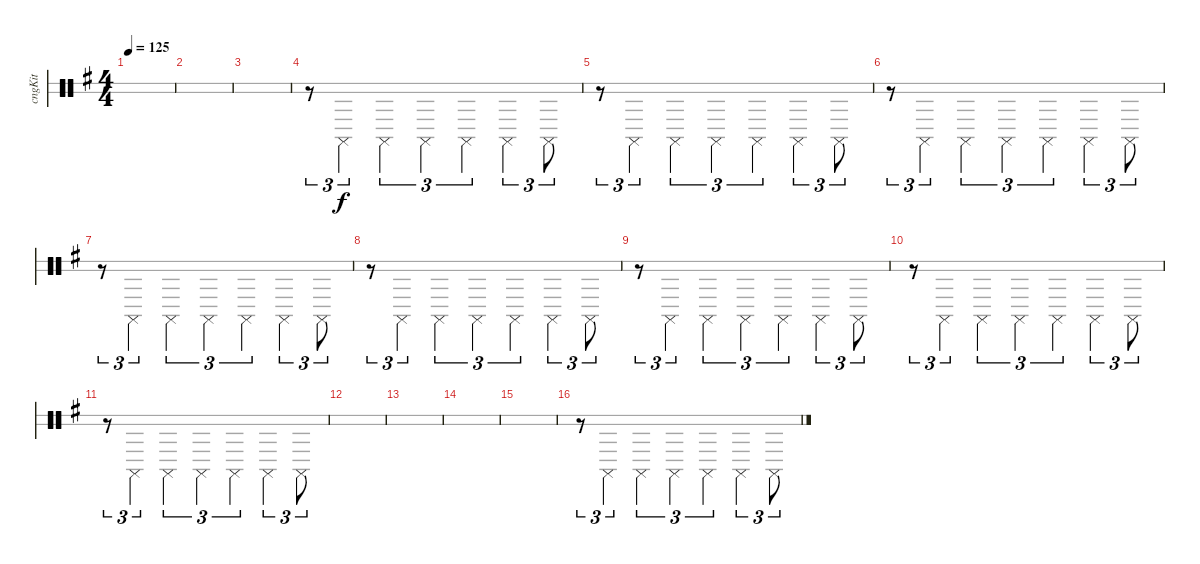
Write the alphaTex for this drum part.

\defaultSystemsLayout 4
\bracketExtendMode groupsimilarinstruments
\otherSystemsTrackNameOrientation horizontal
\track ("Congas" "cngKit") {instrument percussion}
\staff {score 2}
\articulation defaults
\ts (4 4)
\tempo 125
\clef neutral
\scale
0.333333
\ks g
|
\scale
0.333333 |
\scale
0.333333 |
\scale
0.333333 r.8{tu (3 2) beam Down} "Conga high (slap)"{acc forcenatural}.4{tu (3 2) beam Down} "Conga high (slap)"{acc forcenatural}.4{tu (3 2) beam Down} "Conga high (slap)"{acc forcenatural}.4{tu (3 2) beam Down} "Conga high (slap)"{acc forcenatural}.4{tu (3 2) beam Down} "Conga high (slap)"{acc forcenatural}.4{tu (3 2) beam Down} "Conga high (slap)"{acc forcenatural}.8{tu (3 2) beam Down} |
\scale
0.333333 r.8{tu (3 2) beam Down} "Conga high (slap)"{acc forcenatural}.4{tu (3 2) beam Down} "Conga high (slap)"{acc forcenatural}.4{tu (3 2) beam Down} "Conga high (slap)"{acc forcenatural}.4{tu (3 2) beam Down} "Conga high (slap)"{acc forcenatural}.4{tu (3 2) beam Down} "Conga high (slap)"{acc forcenatural}.4{tu (3 2) beam Down} "Conga high (slap)"{acc forcenatural}.8{tu (3 2) beam Down} |
\scale
0.333333 r.8{tu (3 2) beam Down} "Conga high (slap)"{acc forcenatural}.4{tu (3 2) beam Down} "Conga high (slap)"{acc forcenatural}.4{tu (3 2) beam Down} "Conga high (slap)"{acc forcenatural}.4{tu (3 2) beam Down} "Conga high (slap)"{acc forcenatural}.4{tu (3 2) beam Down} "Conga high (slap)"{acc forcenatural}.4{tu (3 2) beam Down} "Conga high (slap)"{acc forcenatural}.8{tu (3 2) beam Down} |
\scale
0.333333 r.8{tu (3 2) beam Down} "Conga high (slap)"{acc forcenatural}.4{tu (3 2) beam Down} "Conga high (slap)"{acc forcenatural}.4{tu (3 2) beam Down} "Conga high (slap)"{acc forcenatural}.4{tu (3 2) beam Down} "Conga high (slap)"{acc forcenatural}.4{tu (3 2) beam Down} "Conga high (slap)"{acc forcenatural}.4{tu (3 2) beam Down} "Conga high (slap)"{acc forcenatural}.8{tu (3 2) beam Down} |
\scale
0.333333 r.8{tu (3 2) beam Down} "Conga high (slap)"{acc forcenatural}.4{tu (3 2) beam Down} "Conga high (slap)"{acc forcenatural}.4{tu (3 2) beam Down} "Conga high (slap)"{acc forcenatural}.4{tu (3 2) beam Down} "Conga high (slap)"{acc forcenatural}.4{tu (3 2) beam Down} "Conga high (slap)"{acc forcenatural}.4{tu (3 2) beam Down} "Conga high (slap)"{acc forcenatural}.8{tu (3 2) beam Down} |
\scale
0.333333 r.8{tu (3 2) beam Down} "Conga high (slap)"{acc forcenatural}.4{tu (3 2) beam Down} "Conga high (slap)"{acc forcenatural}.4{tu (3 2) beam Down} "Conga high (slap)"{acc forcenatural}.4{tu (3 2) beam Down} "Conga high (slap)"{acc forcenatural}.4{tu (3 2) beam Down} "Conga high (slap)"{acc forcenatural}.4{tu (3 2) beam Down} "Conga high (slap)"{acc forcenatural}.8{tu (3 2) beam Down} |
\scale
0.333333 r.8{tu (3 2) beam Down} "Conga high (slap)"{acc forcenatural}.4{tu (3 2) beam Down} "Conga high (slap)"{acc forcenatural}.4{tu (3 2) beam Down} "Conga high (slap)"{acc forcenatural}.4{tu (3 2) beam Down} "Conga high (slap)"{acc forcenatural}.4{tu (3 2) beam Down} "Conga high (slap)"{acc forcenatural}.4{tu (3 2) beam Down} "Conga high (slap)"{acc forcenatural}.8{tu (3 2) beam Down} |
\scale
0.333333 r.8{tu (3 2) beam Down} "Conga high (slap)"{acc forcenatural}.4{tu (3 2) beam Down} "Conga high (slap)"{acc forcenatural}.4{tu (3 2) beam Down} "Conga high (slap)"{acc forcenatural}.4{tu (3 2) beam Down} "Conga high (slap)"{acc forcenatural}.4{tu (3 2) beam Down} "Conga high (slap)"{acc forcenatural}.4{tu (3 2) beam Down} "Conga high (slap)"{acc forcenatural}.8{tu (3 2) beam Down} |
\scale
0.333333 |
\scale
0.333333 |
\scale
0.333333 |
\scale
0.333333 |
\scale
0.333333 r.8{tu (3 2) beam Down} "Conga high (slap)"{acc forcenatural}.4{tu (3 2) beam Down} "Conga high (slap)"{acc forcenatural}.4{tu (3 2) beam Down} "Conga high (slap)"{acc forcenatural}.4{tu (3 2) beam Down} "Conga high (slap)"{acc forcenatural}.4{tu (3 2) beam Down} "Conga high (slap)"{acc forcenatural}.4{tu (3 2) beam Down} "Conga high (slap)"{acc forcenatural}.8{tu (3 2) beam Down}
